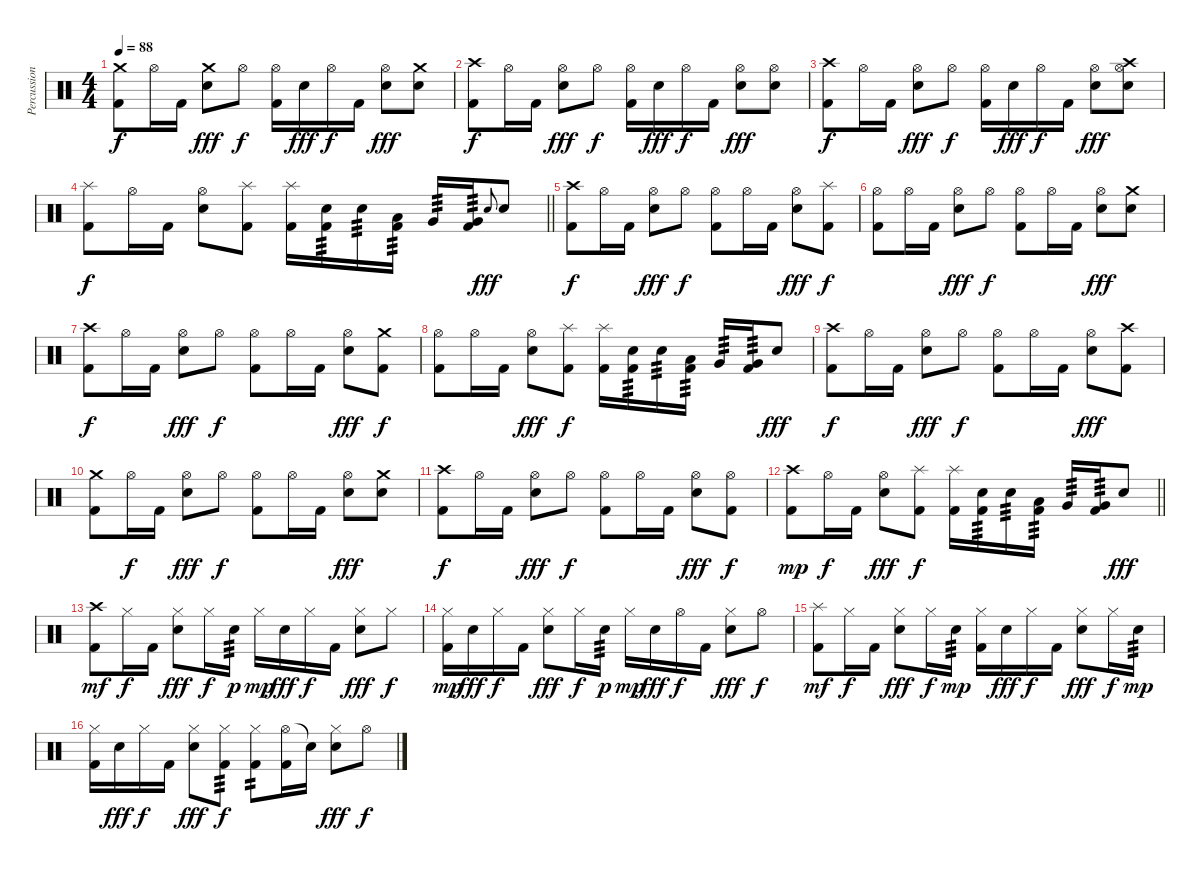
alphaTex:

\track ("Percussion" "Percussion") {instrument percussion}
\staff {score}
\articulation defaults
\ts (4 4)
\tempo 88
\clef neutral
\ks c
("Crash medium (hit)" "Kick (hit) 2").8{dy f} "Hi-Hat (open)".16 "Kick (hit) 2".16 ("Crash medium (hit)" "Electric Snare (hit)").8{dy fff} "Hi-Hat (open)".8{dy f} ("Hi-Hat (open)" "Kick (hit) 2").16 "Electric Snare (hit)".16{dy fff} "Hi-Hat (open)".16{dy f} "Kick (hit) 2".16 ("Hi-Hat (open)" "Electric Snare (hit)").8{dy fff} ("Crash medium (hit)" "Electric Snare (hit)").8 |
("Crash high (hit)" "Kick (hit) 2").8{dy f} "Hi-Hat (open)".16 "Kick (hit) 2".16 ("Hi-Hat (open)" "Electric Snare (hit)").8{dy fff} "Hi-Hat (open)".8{dy f} ("Hi-Hat (open)" "Kick (hit) 2").16 "Electric Snare (hit)".16{dy fff} "Hi-Hat (open)".16{dy f} "Kick (hit) 2".16 ("Hi-Hat (open)" "Electric Snare (hit)").8{dy fff} ("Hi-Hat (open)" "Electric Snare (hit)").8 |
("Crash high (hit)" "Kick (hit) 2").8{dy f} "Hi-Hat (open)".16 "Kick (hit) 2".16 ("Hi-Hat (open)" "Electric Snare (hit)").8{dy fff} "Hi-Hat (open)".8{dy f} ("Hi-Hat (open)" "Kick (hit) 2").16 "Electric Snare (hit)".16{dy fff} "Hi-Hat (open)".16{dy f} "Kick (hit) 2".16 ("Hi-Hat (open)" "Electric Snare (hit)").8{dy fff} ("Crash high (hit)" "Hi-Hat (open)" "Electric Snare (hit)").8 |
\barLineRight lightlight
("Splash (hit)" "Kick (hit) 2").8{dy f} "Hi-Hat (open)".16 "Kick (hit) 2".16 ("Hi-Hat (open)" "Electric Snare (hit)").8 ("Splash (hit)" "Kick (hit) 2").8 ("Splash (hit)" "Kick (hit) 2").16 ("Electric Snare (hit)" "Kick (hit) 2").16{tp 3} "Electric Snare (hit)".16{tp 3} ("Low Tom (hit)" "Kick (hit) 2").16{tp 3} "Very Low Tom (hit)".16{tp 3} ("Very Low Tom (hit)" "Kick (hit) 2").16{tp 3} "Electric Snare (hit)".8{gr onbeat dy fff} "Electric Snare (hit)".8 |
("Crash high (hit)" "Kick (hit) 2").8{dy f} "Hi-Hat (open)".16 "Kick (hit) 2".16 ("Hi-Hat (open)" "Electric Snare (hit)").8{dy fff} "Hi-Hat (open)".8{dy f} ("Hi-Hat (open)" "Kick (hit) 2").8 "Hi-Hat (open)".16 "Kick (hit) 2".16 ("Hi-Hat (open)" "Electric Snare (hit)").8{dy fff} ("Splash (hit)" "Kick (hit) 2").8{dy f} |
("Hi-Hat (open)" "Kick (hit) 2").8 "Hi-Hat (open)".16 "Kick (hit) 2".16 ("Hi-Hat (open)" "Electric Snare (hit)").8{dy fff} "Hi-Hat (open)".8{dy f} ("Hi-Hat (open)" "Kick (hit) 2").8 "Hi-Hat (open)".16 "Kick (hit) 2".16 ("Hi-Hat (open)" "Electric Snare (hit)").8{dy fff} ("Crash medium (hit)" "Electric Snare (hit)").8 |
("Crash high (hit)" "Kick (hit) 2").8{dy f} "Hi-Hat (open)".16 "Kick (hit) 2".16 ("Hi-Hat (open)" "Electric Snare (hit)").8{dy fff} "Hi-Hat (open)".8{dy f} ("Hi-Hat (open)" "Kick (hit) 2").8 "Hi-Hat (open)".16 "Kick (hit) 2".16 ("Hi-Hat (open)" "Electric Snare (hit)").8{dy fff} ("Crash medium (hit)" "Kick (hit) 2").8{dy f} |
("Hi-Hat (open)" "Kick (hit) 2").8 "Hi-Hat (open)".16 "Kick (hit) 2".16 ("Hi-Hat (open)" "Electric Snare (hit)").8{dy fff} ("Splash (hit)" "Kick (hit) 2").8{dy f} ("Splash (hit)" "Kick (hit) 2").16 ("Electric Snare (hit)" "Kick (hit) 2").16{tp 3} "Electric Snare (hit)".16{tp 3} ("Low Tom (hit)" "Kick (hit) 2").16{tp 3} "Very Low Tom (hit)".16{tp 3} ("Very Low Tom (hit)" "Kick (hit) 2").16{tp 3} "Electric Snare (hit)".8{dy fff} |
("Crash high (hit)" "Kick (hit) 2").8{dy f} "Hi-Hat (open)".16 "Kick (hit) 2".16 ("Hi-Hat (open)" "Electric Snare (hit)").8{dy fff} "Hi-Hat (open)".8{dy f} ("Hi-Hat (open)" "Kick (hit) 2").8 "Hi-Hat (open)".16 "Kick (hit) 2".16 ("Hi-Hat (open)" "Electric Snare (hit)").8{dy fff} ("Crash high (hit)" "Kick (hit) 2").8 |
("Crash medium (hit)" "Kick (hit) 2").8 "Hi-Hat (open)".16{dy f} "Kick (hit) 2".16 ("Hi-Hat (open)" "Electric Snare (hit)").8{dy fff} "Hi-Hat (open)".8{dy f} ("Hi-Hat (open)" "Kick (hit) 2").8 "Hi-Hat (open)".16 "Kick (hit) 2".16 ("Hi-Hat (open)" "Electric Snare (hit)").8{dy fff} ("Crash medium (hit)" "Electric Snare (hit)").8 |
("Crash high (hit)" "Kick (hit) 2").8{dy f} "Hi-Hat (open)".16 "Kick (hit) 2".16 ("Hi-Hat (open)" "Electric Snare (hit)").8{dy fff} "Hi-Hat (open)".8{dy f} ("Hi-Hat (open)" "Kick (hit) 2").8 "Hi-Hat (open)".16 "Kick (hit) 2".16 ("Hi-Hat (open)" "Electric Snare (hit)").8{dy fff} ("Hi-Hat (open)" "Kick (hit) 2").8{dy f} |
\barLineRight lightlight
("Crash high (hit)" "Kick (hit) 2").8{dy mp} "Hi-Hat (open)".16{dy f} "Kick (hit) 2".16 ("Hi-Hat (open)" "Electric Snare (hit)").8{dy fff} ("Splash (hit)" "Kick (hit) 2").8{dy f} ("Splash (hit)" "Kick (hit) 2").16 ("Electric Snare (hit)" "Kick (hit) 2").16{tp 3} "Electric Snare (hit)".16{tp 3} ("Low Tom (hit)" "Kick (hit) 2").16{tp 3} "Very Low Tom (hit)".16{tp 3} ("Very Low Tom (hit)" "Kick (hit) 2").16{tp 3} "Electric Snare (hit)".8{dy fff} |
("Crash high (hit)" "Kick (hit) 2").8{dy mf} "Hi-Hat (closed)".16{dy f} "Kick (hit) 2".16 ("Hi-Hat (closed)" "Electric Snare (hit)").8{dy fff} "Hi-Hat (closed)".16{dy f} "Electric Snare (hit)".16{tp 3 dy p} "Hi-Hat (closed)".16{dy mp} "Electric Snare (hit)".16{dy fff} "Hi-Hat (closed)".16{dy f} "Kick (hit) 2".16 ("Hi-Hat (closed)" "Electric Snare (hit)").8{dy fff} "Hi-Hat (closed)".8{dy f} |
("Hi-Hat (closed)" "Kick (hit) 2").16{dy mp} "Electric Snare (hit)".16{dy fff} "Hi-Hat (closed)".16{dy f} "Kick (hit) 2".16 ("Hi-Hat (closed)" "Electric Snare (hit)").8{dy fff} "Hi-Hat (closed)".16{dy f} "Electric Snare (hit)".16{tp 3 dy p} "Hi-Hat (closed)".16{dy mp} "Electric Snare (hit)".16{dy fff} "Hi-Hat (open)".16{dy f} "Kick (hit) 2".16 ("Hi-Hat (closed)" "Electric Snare (hit)").8{dy fff} "Hi-Hat (open)".8{dy f} |
("Splash (hit)" "Kick (hit) 2").8{dy mf} "Hi-Hat (closed)".16{dy f} "Kick (hit) 2".16 ("Hi-Hat (closed)" "Electric Snare (hit)").8{dy fff} "Hi-Hat (closed)".16{dy f} "Electric Snare (hit)".16{tp 3 dy mp} ("Hi-Hat (closed)" "Kick (hit) 2").16 "Electric Snare (hit)".16{dy fff} "Hi-Hat (closed)".16{dy f} "Kick (hit) 2".16 ("Hi-Hat (closed)" "Electric Snare (hit)").8{dy fff} "Hi-Hat (closed)".16{dy f} "Electric Snare (hit)".16{tp 3 dy mp} |
("Hi-Hat (closed)" "Kick (hit) 2").16 "Electric Snare (hit)".16{dy fff} "Hi-Hat (closed)".16{dy f} "Kick (hit) 2".16 ("Hi-Hat (closed)" "Electric Snare (hit)").8{dy fff} ("Hi-Hat (closed)" "Kick (hit) 2").8{tp 3 dy f} ("Hi-Hat (closed)" "Kick (hit) 2").8{tp 2} ("Hi-Hat (open)" "Kick (hit) 2").16 "Snare (hit)"{t}.16 ("Hi-Hat (closed)" "Electric Snare (hit)").8{dy fff} "Hi-Hat (open)".8{dy f}
